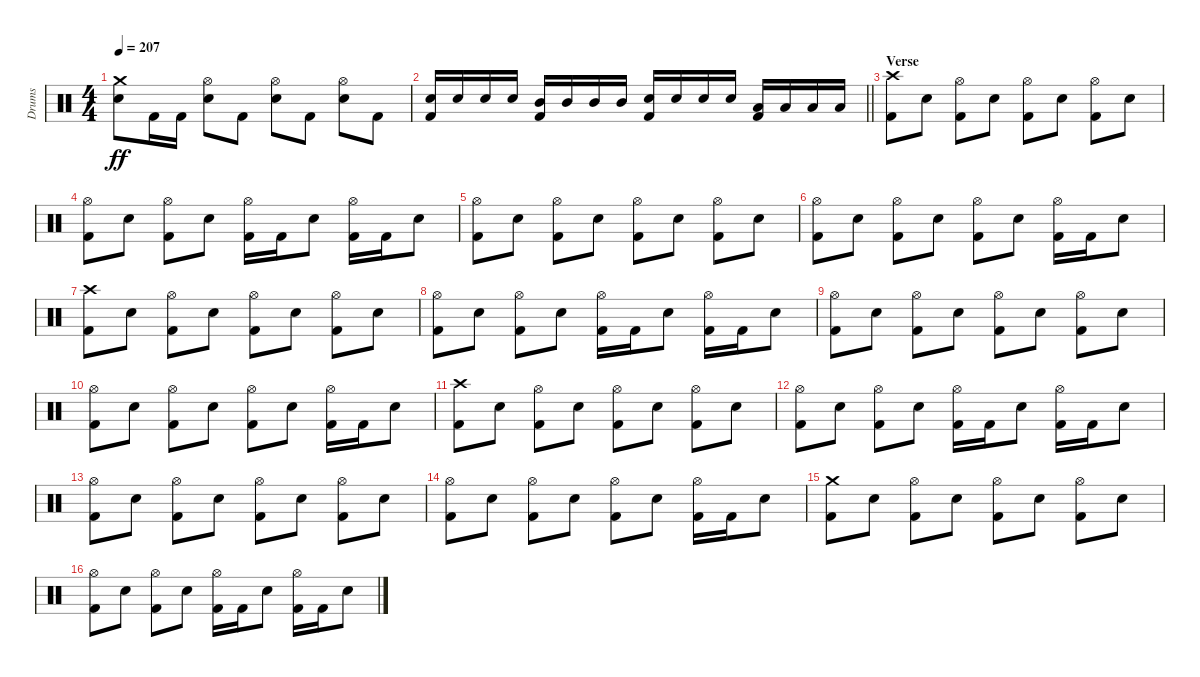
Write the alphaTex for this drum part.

\track ("Drums" "Drums") {instrument percussion}
\staff {score}
\articulation defaults
\ts (4 4)
\tempo 207
\clef neutral
\ks c
("Crash medium (hit)" "Snare (hit) 2").8{dy ff} "Kick (hit) 2".16 "Kick (hit) 2".16 ("Hi-Hat (open)" "Snare (hit) 2").8 "Kick (hit) 2".8 ("Hi-Hat (open)" "Snare (hit) 2").8 "Kick (hit) 2".8 ("Hi-Hat (open)" "Snare (hit) 2").8 "Kick (hit) 2".8 |
\barLineRight lightlight
("Snare (hit) 2" "Kick (hit) 2").16 "Snare (hit) 2".16 "Snare (hit) 2".16 "Snare (hit) 2".16 ("Mid Tom (hit)" "Kick (hit) 2").16 "Mid Tom (hit)".16 "Mid Tom (hit)".16 "Mid Tom (hit)".16 ("Snare (hit) 2" "Kick (hit) 2").16 "Snare (hit) 2".16 "Snare (hit) 2".16 "Snare (hit) 2".16 ("Low Tom (hit)" "Kick (hit) 2").16 "Low Tom (hit)".16 "Low Tom (hit)".16 "Low Tom (hit)".16 |
\section ("" "Verse")
("Crash high (hit)" "Kick (hit) 2").8 "Snare (hit) 2".8 ("Hi-Hat (open)" "Kick (hit) 2").8 "Snare (hit) 2".8 ("Hi-Hat (open)" "Kick (hit) 2").8 "Snare (hit) 2".8 ("Hi-Hat (open)" "Kick (hit) 2").8 "Snare (hit) 2".8 |
("Hi-Hat (open)" "Kick (hit) 2").8 "Snare (hit) 2".8 ("Hi-Hat (open)" "Kick (hit) 2").8 "Snare (hit) 2".8 ("Hi-Hat (open)" "Kick (hit) 2").16 "Kick (hit) 2".16 "Snare (hit) 2".8 ("Hi-Hat (open)" "Kick (hit) 2").16 "Kick (hit) 2".16 "Snare (hit) 2".8 |
("Hi-Hat (open)" "Kick (hit) 2").8 "Snare (hit) 2".8 ("Hi-Hat (open)" "Kick (hit) 2").8 "Snare (hit) 2".8 ("Hi-Hat (open)" "Kick (hit) 2").8 "Snare (hit) 2".8 ("Hi-Hat (open)" "Kick (hit) 2").8 "Snare (hit) 2".8 |
("Hi-Hat (open)" "Kick (hit) 2").8 "Snare (hit) 2".8 ("Hi-Hat (open)" "Kick (hit) 2").8 "Snare (hit) 2".8 ("Hi-Hat (open)" "Kick (hit) 2").8 "Snare (hit) 2".8 ("Hi-Hat (open)" "Kick (hit) 2").16 "Kick (hit) 2".16 "Snare (hit) 2".8 |
("Crash high (hit)" "Kick (hit) 2").8 "Snare (hit) 2".8 ("Hi-Hat (open)" "Kick (hit) 2").8 "Snare (hit) 2".8 ("Hi-Hat (open)" "Kick (hit) 2").8 "Snare (hit) 2".8 ("Hi-Hat (open)" "Kick (hit) 2").8 "Snare (hit) 2".8 |
("Hi-Hat (open)" "Kick (hit) 2").8 "Snare (hit) 2".8 ("Hi-Hat (open)" "Kick (hit) 2").8 "Snare (hit) 2".8 ("Hi-Hat (open)" "Kick (hit) 2").16 "Kick (hit) 2".16 "Snare (hit) 2".8 ("Hi-Hat (open)" "Kick (hit) 2").16 "Kick (hit) 2".16 "Snare (hit) 2".8 |
("Hi-Hat (open)" "Kick (hit) 2").8 "Snare (hit) 2".8 ("Hi-Hat (open)" "Kick (hit) 2").8 "Snare (hit) 2".8 ("Hi-Hat (open)" "Kick (hit) 2").8 "Snare (hit) 2".8 ("Hi-Hat (open)" "Kick (hit) 2").8 "Snare (hit) 2".8 |
("Hi-Hat (open)" "Kick (hit) 2").8 "Snare (hit) 2".8 ("Hi-Hat (open)" "Kick (hit) 2").8 "Snare (hit) 2".8 ("Hi-Hat (open)" "Kick (hit) 2").8 "Snare (hit) 2".8 ("Hi-Hat (open)" "Kick (hit) 2").16 "Kick (hit) 2".16 "Snare (hit) 2".8 |
("Crash high (hit)" "Kick (hit) 2").8 "Snare (hit) 2".8 ("Hi-Hat (open)" "Kick (hit) 2").8 "Snare (hit) 2".8 ("Hi-Hat (open)" "Kick (hit) 2").8 "Snare (hit) 2".8 ("Hi-Hat (open)" "Kick (hit) 2").8 "Snare (hit) 2".8 |
("Hi-Hat (open)" "Kick (hit) 2").8 "Snare (hit) 2".8 ("Hi-Hat (open)" "Kick (hit) 2").8 "Snare (hit) 2".8 ("Hi-Hat (open)" "Kick (hit) 2").16 "Kick (hit) 2".16 "Snare (hit) 2".8 ("Hi-Hat (open)" "Kick (hit) 2").16 "Kick (hit) 2".16 "Snare (hit) 2".8 |
("Hi-Hat (open)" "Kick (hit) 2").8 "Snare (hit) 2".8 ("Hi-Hat (open)" "Kick (hit) 2").8 "Snare (hit) 2".8 ("Hi-Hat (open)" "Kick (hit) 2").8 "Snare (hit) 2".8 ("Hi-Hat (open)" "Kick (hit) 2").8 "Snare (hit) 2".8 |
("Hi-Hat (open)" "Kick (hit) 2").8 "Snare (hit) 2".8 ("Hi-Hat (open)" "Kick (hit) 2").8 "Snare (hit) 2".8 ("Hi-Hat (open)" "Kick (hit) 2").8 "Snare (hit) 2".8 ("Hi-Hat (open)" "Kick (hit) 2").16 "Kick (hit) 2".16 "Snare (hit) 2".8 |
("Crash medium (hit)" "Kick (hit) 2").8 "Snare (hit) 2".8 ("Hi-Hat (open)" "Kick (hit) 2").8 "Snare (hit) 2".8 ("Hi-Hat (open)" "Kick (hit) 2").8 "Snare (hit) 2".8 ("Hi-Hat (open)" "Kick (hit) 2").8 "Snare (hit) 2".8 |
("Hi-Hat (open)" "Kick (hit) 2").8 "Snare (hit) 2".8 ("Hi-Hat (open)" "Kick (hit) 2").8 "Snare (hit) 2".8 ("Hi-Hat (open)" "Kick (hit) 2").16 "Kick (hit) 2".16 "Snare (hit) 2".8 ("Hi-Hat (open)" "Kick (hit) 2").16 "Kick (hit) 2".16 "Snare (hit) 2".8
